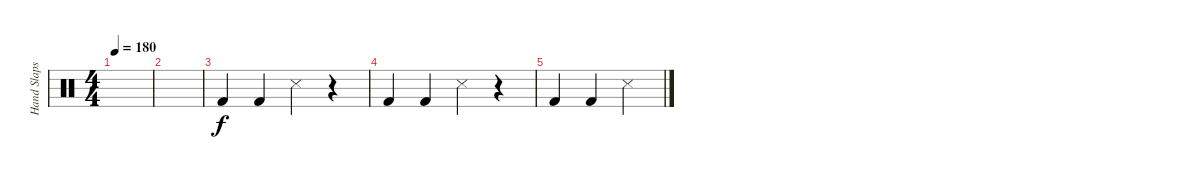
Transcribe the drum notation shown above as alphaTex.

\track ("Hand Slaps on guitar" "Hand Slaps") {instrument percussion}
\staff {score}
\articulation defaults
\ts (4 4)
\tempo 180
\clef neutral
\ks c
|
|
"Kick (hit) 2".4 "Kick (hit) 2".4 "Metronome (hit)".4 r.4 |
"Kick (hit) 2".4 "Kick (hit) 2".4 "Metronome (hit)".4 r.4 |
"Kick (hit) 2".4 "Kick (hit) 2".4 "Metronome (hit)".4
